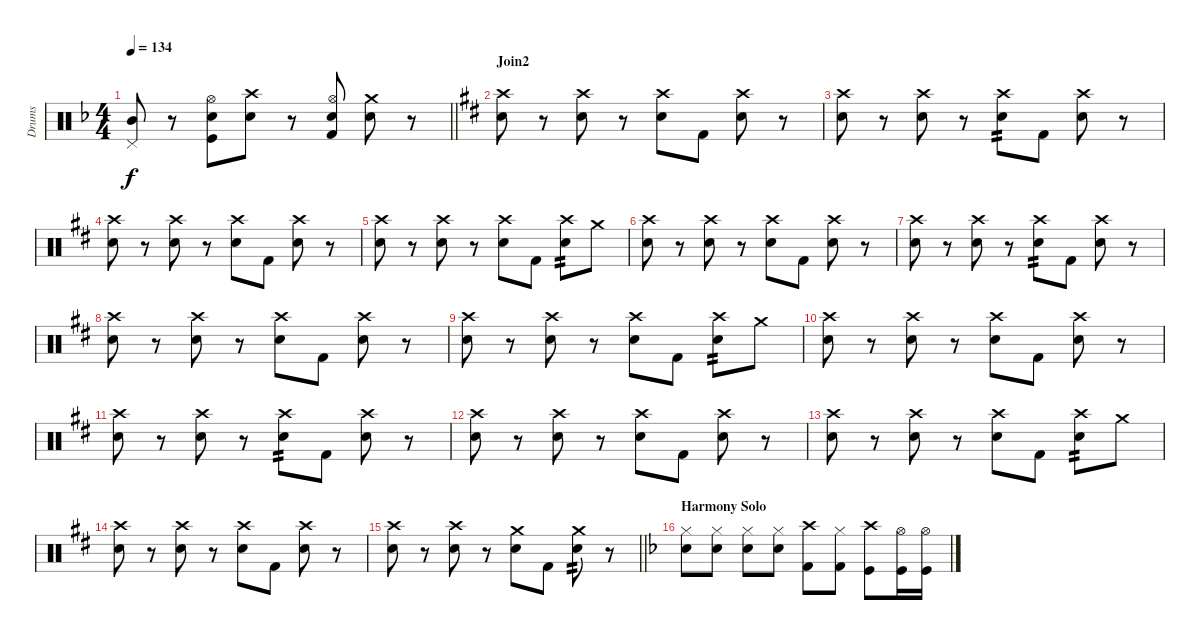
\track ("Drums" "Drums") {instrument percussion}
\staff {score}
\articulation defaults
\ts (4 4)
\tempo 134
\clef neutral
\barLineRight lightlight
\ks f
("Mid Tom (hit)" "Pedal Hi-Hat (hit)").8{dy f} r.8 ("Kick (hit)" "Snare (hit) 2" "Hi-Hat (open)").8 ("Snare (hit) 2" "Crash high (hit)").8 r.8 ("Kick (hit) 2" "Snare (hit) 2" "Hi-Hat (open)").8 ("Electric Snare (hit)" "Crash medium (hit)").8 r.8 |
\section ("" "Join2")
\ks d
("Snare (hit) 2" "Crash high (hit)").8 r.8 ("Snare (hit) 2" "Crash high (hit)").8 r.8 ("Snare (hit) 2" "Crash high (hit)").8 "Kick (hit) 2".8 ("Electric Snare (hit)" "Crash high (hit)").8 r.8 |
("Snare (hit) 2" "Crash high (hit)").8 r.8 ("Snare (hit) 2" "Crash high (hit)").8 r.8 ("Snare (hit) 2" "Crash high (hit)").8{tp 2} "Kick (hit) 2".8 ("Electric Snare (hit)" "Crash high (hit)").8 r.8 |
("Snare (hit) 2" "Crash high (hit)").8 r.8 ("Snare (hit) 2" "Crash high (hit)").8 r.8 ("Snare (hit) 2" "Crash high (hit)").8 "Kick (hit) 2".8 ("Electric Snare (hit)" "Crash high (hit)").8 r.8 |
("Snare (hit) 2" "Crash high (hit)").8 r.8 ("Snare (hit) 2" "Crash high (hit)").8 r.8 ("Snare (hit) 2" "Crash high (hit)").8 "Kick (hit) 2".8 ("Electric Snare (hit)" "Crash high (hit)").8{tp 2} "Crash medium (hit)".8 |
("Snare (hit) 2" "Crash high (hit)").8 r.8 ("Snare (hit) 2" "Crash high (hit)").8 r.8 ("Snare (hit) 2" "Crash high (hit)").8 "Kick (hit) 2".8 ("Electric Snare (hit)" "Crash high (hit)").8 r.8 |
("Snare (hit) 2" "Crash high (hit)").8 r.8 ("Snare (hit) 2" "Crash high (hit)").8 r.8 ("Snare (hit) 2" "Crash high (hit)").8{tp 2} "Kick (hit) 2".8 ("Electric Snare (hit)" "Crash high (hit)").8 r.8 |
("Snare (hit) 2" "Crash high (hit)").8 r.8 ("Snare (hit) 2" "Crash high (hit)").8 r.8 ("Snare (hit) 2" "Crash high (hit)").8 "Kick (hit) 2".8 ("Electric Snare (hit)" "Crash high (hit)").8 r.8 |
("Snare (hit) 2" "Crash high (hit)").8 r.8 ("Snare (hit) 2" "Crash high (hit)").8 r.8 ("Snare (hit) 2" "Crash high (hit)").8 "Kick (hit) 2".8 ("Electric Snare (hit)" "Crash high (hit)").8{tp 2} "Crash medium (hit)".8 |
("Snare (hit) 2" "Crash high (hit)").8 r.8 ("Snare (hit) 2" "Crash high (hit)").8 r.8 ("Snare (hit) 2" "Crash high (hit)").8 "Kick (hit) 2".8 ("Electric Snare (hit)" "Crash high (hit)").8 r.8 |
("Snare (hit) 2" "Crash high (hit)").8 r.8 ("Snare (hit) 2" "Crash high (hit)").8 r.8 ("Snare (hit) 2" "Crash high (hit)").8{tp 2} "Kick (hit) 2".8 ("Electric Snare (hit)" "Crash high (hit)").8 r.8 |
("Snare (hit) 2" "Crash high (hit)").8 r.8 ("Snare (hit) 2" "Crash high (hit)").8 r.8 ("Snare (hit) 2" "Crash high (hit)").8 "Kick (hit) 2".8 ("Electric Snare (hit)" "Crash high (hit)").8 r.8 |
("Snare (hit) 2" "Crash high (hit)").8 r.8 ("Snare (hit) 2" "Crash high (hit)").8 r.8 ("Snare (hit) 2" "Crash high (hit)").8 "Kick (hit) 2".8 ("Electric Snare (hit)" "Crash high (hit)").8{tp 2} "Crash medium (hit)".8 |
("Snare (hit) 2" "Crash high (hit)").8 r.8 ("Snare (hit) 2" "Crash high (hit)").8 r.8 ("Snare (hit) 2" "Crash high (hit)").8 "Kick (hit) 2".8 ("Electric Snare (hit)" "Crash high (hit)").8 r.8 |
\barLineRight lightlight
("Snare (hit) 2" "Crash high (hit)").8 r.8 ("Snare (hit) 2" "Crash high (hit)").8 r.8 ("Snare (hit) 2" "Crash medium (hit)").8 "Kick (hit) 2".8 ("Electric Snare (hit)" "Crash medium (hit)").8{tp 2} r.8 |
\section ("" "Harmony Solo")
\ks f
("Snare (hit) 2" "Hi-Hat (closed)").8 ("Electric Snare (hit)" "Hi-Hat (closed)").8 ("Snare (hit) 2" "Hi-Hat (closed)").8 ("Snare (hit) 2" "Hi-Hat (closed)").8 ("Kick (hit) 2" "Crash high (hit)").8 ("Kick (hit) 2" "Hi-Hat (closed)").8 ("Kick (hit)" "Crash high (hit)").8 ("Kick (hit)" "Hi-Hat (open)").16 ("Kick (hit)" "Hi-Hat (open)").16
